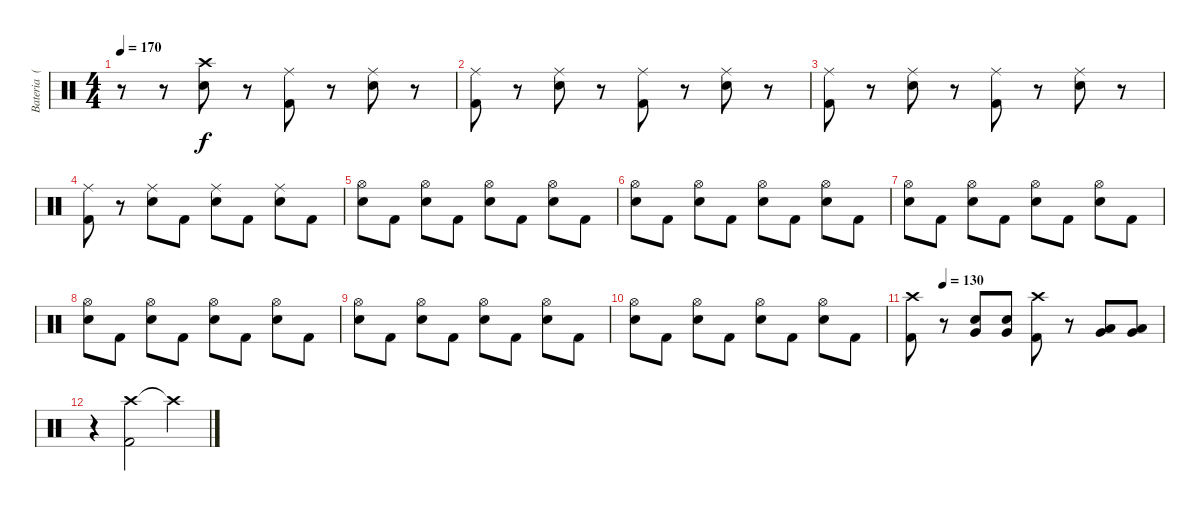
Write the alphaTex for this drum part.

\track ("Bateria  (Araujo)" "Bateria  (") {instrument percussion}
\staff {score}
\articulation defaults
\ts (4 4)
\tempo 170
\clef neutral
\ks c
r.8{dy f} r.8 ("Crash high (hit)" "Snare (hit) 2").8 r.8 ("Ride (middle)" "Kick (hit) 2").8 r.8 ("Ride (middle)" "Snare (hit) 2").8 r.8 |
("Ride (middle)" "Kick (hit) 2").8 r.8 ("Ride (middle)" "Snare (hit) 2").8 r.8 ("Ride (middle)" "Kick (hit) 2").8 r.8 ("Ride (middle)" "Snare (hit) 2").8 r.8 |
("Ride (middle)" "Kick (hit) 2").8 r.8 ("Ride (middle)" "Snare (hit) 2").8 r.8 ("Ride (middle)" "Kick (hit) 2").8 r.8 ("Ride (middle)" "Snare (hit) 2").8 r.8 |
("Ride (middle)" "Kick (hit) 2").8 r.8 ("Ride (middle)" "Snare (hit) 2").8 "Kick (hit) 2".8 ("Ride (middle)" "Snare (hit) 2").8 "Kick (hit) 2".8 ("Ride (middle)" "Snare (hit) 2").8 "Kick (hit) 2".8 |
("Hi-Hat (open)" "Snare (hit) 2").8 "Kick (hit) 2".8 ("Hi-Hat (open)" "Snare (hit) 2").8 "Kick (hit) 2".8 ("Hi-Hat (open)" "Snare (hit) 2").8 "Kick (hit) 2".8 ("Hi-Hat (open)" "Snare (hit) 2").8 "Kick (hit) 2".8 |
("Hi-Hat (open)" "Snare (hit) 2").8 "Kick (hit) 2".8 ("Hi-Hat (open)" "Snare (hit) 2").8 "Kick (hit) 2".8 ("Hi-Hat (open)" "Snare (hit) 2").8 "Kick (hit) 2".8 ("Hi-Hat (open)" "Snare (hit) 2").8 "Kick (hit) 2".8 |
("Hi-Hat (open)" "Snare (hit) 2").8 "Kick (hit) 2".8 ("Hi-Hat (open)" "Snare (hit) 2").8 "Kick (hit) 2".8 ("Hi-Hat (open)" "Snare (hit) 2").8 "Kick (hit) 2".8 ("Hi-Hat (open)" "Snare (hit) 2").8 "Kick (hit) 2".8 |
("Hi-Hat (open)" "Snare (hit) 2").8 "Kick (hit) 2".8 ("Hi-Hat (open)" "Snare (hit) 2").8 "Kick (hit) 2".8 ("Hi-Hat (open)" "Snare (hit) 2").8 "Kick (hit) 2".8 ("Hi-Hat (open)" "Snare (hit) 2").8 "Kick (hit) 2".8 |
("Hi-Hat (open)" "Snare (hit) 2").8 "Kick (hit) 2".8 ("Hi-Hat (open)" "Snare (hit) 2").8 "Kick (hit) 2".8 ("Hi-Hat (open)" "Snare (hit) 2").8 "Kick (hit) 2".8 ("Hi-Hat (open)" "Snare (hit) 2").8 "Kick (hit) 2".8 |
("Hi-Hat (open)" "Snare (hit) 2").8 "Kick (hit) 2".8 ("Hi-Hat (open)" "Snare (hit) 2").8 "Kick (hit) 2".8 ("Hi-Hat (open)" "Snare (hit) 2").8 "Kick (hit) 2".8 ("Hi-Hat (open)" "Snare (hit) 2").8 "Kick (hit) 2".8 |
\tempo (130 0.125)
("Crash high (hit)" "Kick (hit) 2").8 r.8 ("Snare (hit) 2" "Very Low Tom (hit)").8 ("Snare (hit) 2" "Very Low Tom (hit)").8 ("Crash high (hit)" "Kick (hit) 2").8 r.8 ("Very Low Tom (hit)" "Low Floor Tom (hit)").8 ("Very Low Tom (hit)" "Low Floor Tom (hit)").8 |
r.4 ("Crash high (hit)" "Kick (hit) 2").2 "Crash high (hit)"{t}.4
